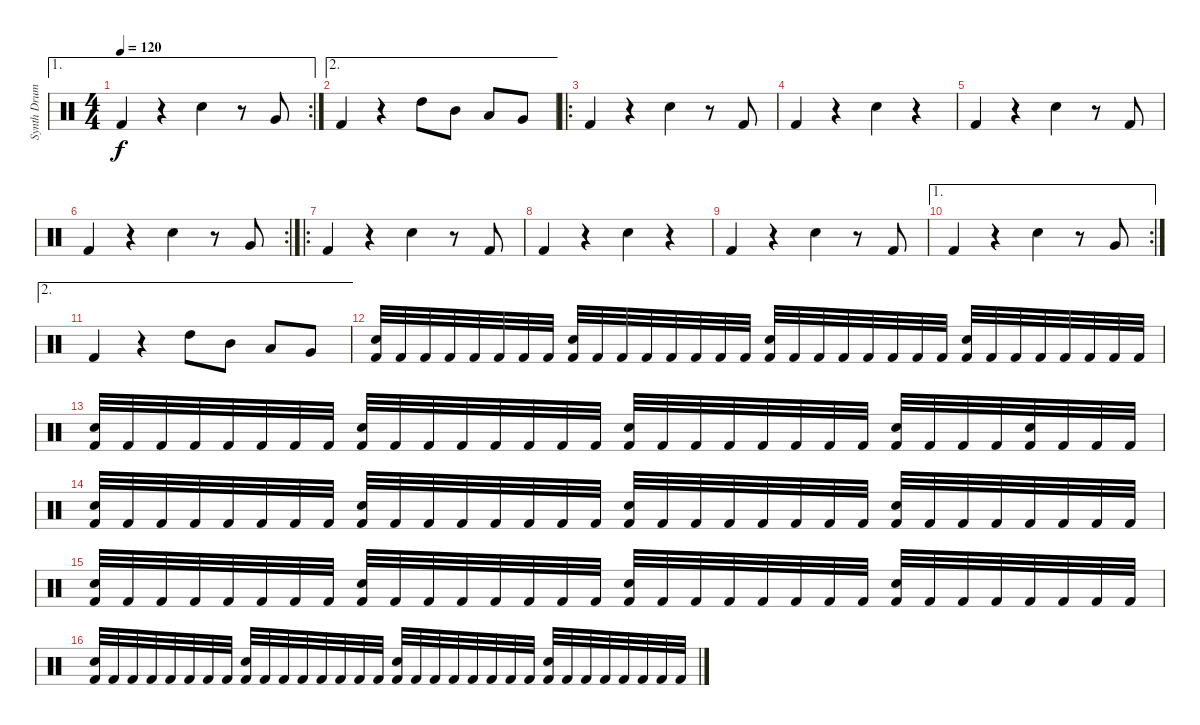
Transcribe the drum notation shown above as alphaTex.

\track ("Synth Drums" "Synth Drum") {instrument percussion}
\staff {score}
\articulation defaults
\ae 1
\rc 2
\ts (4 4)
\tempo 120
\clef neutral
\ks c "Kick (hit) 2".4{dy f}
r.4 "Electric Snare (hit)".4 r.8 "Very Low Tom (hit)".8 |
\ae 2 "Kick (hit) 2".4
r.4 "High Tom (hit)".8 "Mid Tom (hit)".8 "Low Tom (hit)".8 "Very Low Tom (hit)".8 |
\ro "Kick (hit) 2".4
r.4 "Snare (hit) 2".4 r.8 "Kick (hit) 2".8 |
"Kick (hit) 2".4 r.4 "Snare (hit) 2".4 r.4 |
"Kick (hit) 2".4 r.4 "Snare (hit) 2".4 r.8 "Kick (hit) 2".8 |
\rc 2 "Kick (hit) 2".4
r.4 "Electric Snare (hit)".4 r.8 "Very Low Tom (hit)".8 |
\ro "Kick (hit) 2".4
r.4 "Snare (hit) 2".4 r.8 "Kick (hit) 2".8 |
"Kick (hit) 2".4 r.4 "Snare (hit) 2".4 r.4 |
"Kick (hit) 2".4 r.4 "Snare (hit) 2".4 r.8 "Kick (hit) 2".8 |
\ae 1
\rc 2 "Kick (hit) 2".4
r.4 "Electric Snare (hit)".4 r.8 "Very Low Tom (hit)".8 |
\ae 2 "Kick (hit) 2".4
r.4 "High Tom (hit)".8 "Mid Tom (hit)".8 "Low Tom (hit)".8 "Very Low Tom (hit)".8 |
("Snare (hit) 2" "Kick (hit) 2").32 "Kick (hit) 2".32 "Kick (hit) 2".32 "Kick (hit) 2".32 "Kick (hit) 2".32 "Kick (hit) 2".32 "Kick (hit) 2".32 "Kick (hit) 2".32 ("Snare (hit) 2" "Kick (hit) 2").32 "Kick (hit) 2".32 "Kick (hit) 2".32 "Kick (hit) 2".32 "Kick (hit) 2".32 "Kick (hit) 2".32 "Kick (hit) 2".32 "Kick (hit) 2".32 ("Snare (hit) 2" "Kick (hit) 2").32 "Kick (hit) 2".32 "Kick (hit) 2".32 "Kick (hit) 2".32 "Kick (hit) 2".32 "Kick (hit) 2".32 "Kick (hit) 2".32 "Kick (hit) 2".32 ("Snare (hit) 2" "Kick (hit) 2").32 "Kick (hit) 2".32 "Kick (hit) 2".32 "Kick (hit) 2".32 "Kick (hit) 2".32 "Kick (hit) 2".32 "Kick (hit) 2".32 "Kick (hit) 2".32 |
("Snare (hit) 2" "Kick (hit) 2").32 "Kick (hit) 2".32 "Kick (hit) 2".32 "Kick (hit) 2".32 "Kick (hit) 2".32 "Kick (hit) 2".32 "Kick (hit) 2".32 "Kick (hit) 2".32 ("Snare (hit) 2" "Kick (hit) 2").32 "Kick (hit) 2".32 "Kick (hit) 2".32 "Kick (hit) 2".32 "Kick (hit) 2".32 "Kick (hit) 2".32 "Kick (hit) 2".32 "Kick (hit) 2".32 ("Snare (hit) 2" "Kick (hit) 2").32 "Kick (hit) 2".32 "Kick (hit) 2".32 "Kick (hit) 2".32 "Kick (hit) 2".32 "Kick (hit) 2".32 "Kick (hit) 2".32 "Kick (hit) 2".32 ("Snare (hit) 2" "Kick (hit) 2").32 "Kick (hit) 2".32 "Kick (hit) 2".32 "Kick (hit) 2".32 ("Snare (hit) 2" "Kick (hit) 2").32 "Kick (hit) 2".32 "Kick (hit) 2".32 "Kick (hit) 2".32 |
("Snare (hit) 2" "Kick (hit) 2").32 "Kick (hit) 2".32 "Kick (hit) 2".32 "Kick (hit) 2".32 "Kick (hit) 2".32 "Kick (hit) 2".32 "Kick (hit) 2".32 "Kick (hit) 2".32 ("Snare (hit) 2" "Kick (hit) 2").32 "Kick (hit) 2".32 "Kick (hit) 2".32 "Kick (hit) 2".32 "Kick (hit) 2".32 "Kick (hit) 2".32 "Kick (hit) 2".32 "Kick (hit) 2".32 ("Snare (hit) 2" "Kick (hit) 2").32 "Kick (hit) 2".32 "Kick (hit) 2".32 "Kick (hit) 2".32 "Kick (hit) 2".32 "Kick (hit) 2".32 "Kick (hit) 2".32 "Kick (hit) 2".32 ("Snare (hit) 2" "Kick (hit) 2").32 "Kick (hit) 2".32 "Kick (hit) 2".32 "Kick (hit) 2".32 "Kick (hit) 2".32 "Kick (hit) 2".32 "Kick (hit) 2".32 "Kick (hit) 2".32 |
("Snare (hit) 2" "Kick (hit) 2").32 "Kick (hit) 2".32 "Kick (hit) 2".32 "Kick (hit) 2".32 "Kick (hit) 2".32 "Kick (hit) 2".32 "Kick (hit) 2".32 "Kick (hit) 2".32 ("Snare (hit) 2" "Kick (hit) 2").32 "Kick (hit) 2".32 "Kick (hit) 2".32 "Kick (hit) 2".32 "Kick (hit) 2".32 "Kick (hit) 2".32 "Kick (hit) 2".32 "Kick (hit) 2".32 ("Snare (hit) 2" "Kick (hit) 2").32 "Kick (hit) 2".32 "Kick (hit) 2".32 "Kick (hit) 2".32 "Kick (hit) 2".32 "Kick (hit) 2".32 "Kick (hit) 2".32 "Kick (hit) 2".32 ("Snare (hit) 2" "Kick (hit) 2").32 "Kick (hit) 2".32 "Kick (hit) 2".32 "Kick (hit) 2".32 "Kick (hit) 2".32 "Kick (hit) 2".32 "Kick (hit) 2".32 "Kick (hit) 2".32 |
("Snare (hit) 2" "Kick (hit) 2").32 "Kick (hit) 2".32 "Kick (hit) 2".32 "Kick (hit) 2".32 "Kick (hit) 2".32 "Kick (hit) 2".32 "Kick (hit) 2".32 "Kick (hit) 2".32 ("Snare (hit) 2" "Kick (hit) 2").32 "Kick (hit) 2".32 "Kick (hit) 2".32 "Kick (hit) 2".32 "Kick (hit) 2".32 "Kick (hit) 2".32 "Kick (hit) 2".32 "Kick (hit) 2".32 ("Snare (hit) 2" "Kick (hit) 2").32 "Kick (hit) 2".32 "Kick (hit) 2".32 "Kick (hit) 2".32 "Kick (hit) 2".32 "Kick (hit) 2".32 "Kick (hit) 2".32 "Kick (hit) 2".32 ("Snare (hit) 2" "Kick (hit) 2").32 "Kick (hit) 2".32 "Kick (hit) 2".32 "Kick (hit) 2".32 "Kick (hit) 2".32 "Kick (hit) 2".32 "Kick (hit) 2".32 "Kick (hit) 2".32
